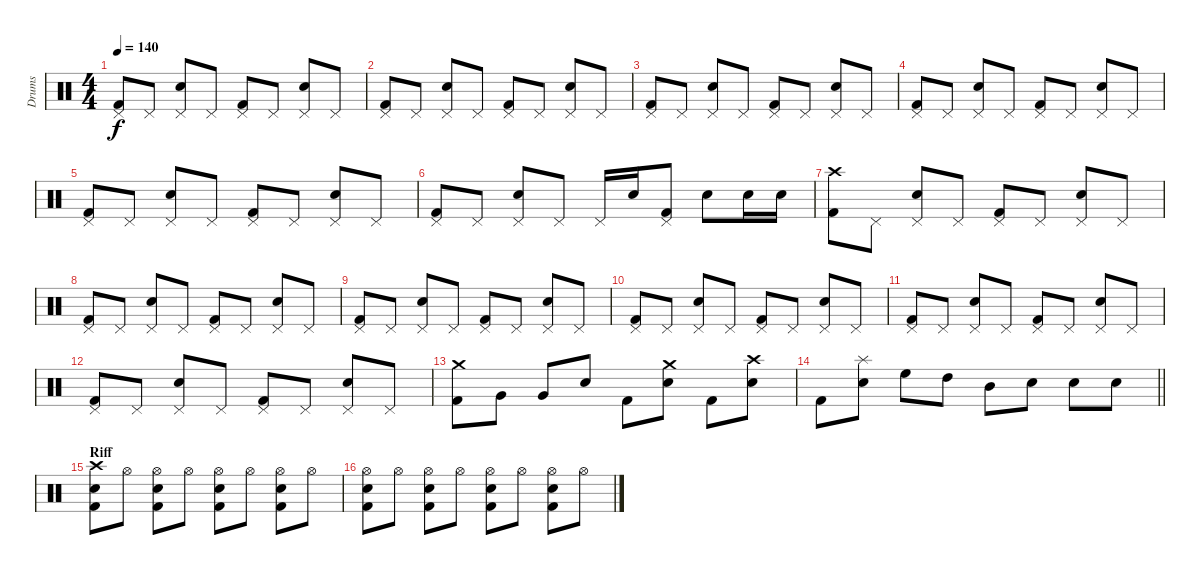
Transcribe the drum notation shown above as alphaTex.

\track ("Drums" "Drums") {instrument percussion}
\staff {score}
\articulation defaults
\ts (4 4)
\tempo 140
\clef neutral
\ks c
("Pedal Hi-Hat (hit)" "Kick (hit) 2").8{dy f} "Pedal Hi-Hat (hit)".8 ("Pedal Hi-Hat (hit)" "Snare (hit) 2").8 "Pedal Hi-Hat (hit)".8 ("Pedal Hi-Hat (hit)" "Kick (hit) 2").8 "Pedal Hi-Hat (hit)".8 ("Pedal Hi-Hat (hit)" "Snare (hit) 2").8 "Pedal Hi-Hat (hit)".8 |
("Pedal Hi-Hat (hit)" "Kick (hit) 2").8 "Pedal Hi-Hat (hit)".8 ("Pedal Hi-Hat (hit)" "Snare (hit) 2").8 "Pedal Hi-Hat (hit)".8 ("Pedal Hi-Hat (hit)" "Kick (hit) 2").8 "Pedal Hi-Hat (hit)".8 ("Pedal Hi-Hat (hit)" "Snare (hit) 2").8 "Pedal Hi-Hat (hit)".8 |
("Pedal Hi-Hat (hit)" "Kick (hit) 2").8 "Pedal Hi-Hat (hit)".8 ("Pedal Hi-Hat (hit)" "Snare (hit) 2").8 "Pedal Hi-Hat (hit)".8 ("Pedal Hi-Hat (hit)" "Kick (hit) 2").8 "Pedal Hi-Hat (hit)".8 ("Pedal Hi-Hat (hit)" "Snare (hit) 2").8 "Pedal Hi-Hat (hit)".8 |
("Pedal Hi-Hat (hit)" "Kick (hit) 2").8 "Pedal Hi-Hat (hit)".8 ("Pedal Hi-Hat (hit)" "Snare (hit) 2").8 "Pedal Hi-Hat (hit)".8 ("Pedal Hi-Hat (hit)" "Kick (hit) 2").8 "Pedal Hi-Hat (hit)".8 ("Pedal Hi-Hat (hit)" "Snare (hit) 2").8 "Pedal Hi-Hat (hit)".8 |
("Pedal Hi-Hat (hit)" "Kick (hit) 2").8 "Pedal Hi-Hat (hit)".8 ("Pedal Hi-Hat (hit)" "Snare (hit) 2").8 "Pedal Hi-Hat (hit)".8 ("Pedal Hi-Hat (hit)" "Kick (hit) 2").8 "Pedal Hi-Hat (hit)".8 ("Pedal Hi-Hat (hit)" "Snare (hit) 2").8 "Pedal Hi-Hat (hit)".8 |
("Pedal Hi-Hat (hit)" "Kick (hit) 2").8 "Pedal Hi-Hat (hit)".8 ("Pedal Hi-Hat (hit)" "Snare (hit) 2").8 "Pedal Hi-Hat (hit)".8 "Pedal Hi-Hat (hit)".16 "Snare (hit) 2".16 ("Pedal Hi-Hat (hit)" "Kick (hit) 2").8 "Snare (hit) 2".8 "Snare (hit) 2".16 "Snare (hit) 2".16 |
("Crash high (hit)" "Kick (hit) 2").8 "Pedal Hi-Hat (hit)".8 ("Pedal Hi-Hat (hit)" "Snare (hit) 2").8 "Pedal Hi-Hat (hit)".8 ("Pedal Hi-Hat (hit)" "Kick (hit) 2").8 "Pedal Hi-Hat (hit)".8 ("Pedal Hi-Hat (hit)" "Snare (hit) 2").8 "Pedal Hi-Hat (hit)".8 |
("Pedal Hi-Hat (hit)" "Kick (hit) 2").8 "Pedal Hi-Hat (hit)".8 ("Pedal Hi-Hat (hit)" "Snare (hit) 2").8 "Pedal Hi-Hat (hit)".8 ("Pedal Hi-Hat (hit)" "Kick (hit) 2").8 "Pedal Hi-Hat (hit)".8 ("Pedal Hi-Hat (hit)" "Snare (hit) 2").8 "Pedal Hi-Hat (hit)".8 |
("Pedal Hi-Hat (hit)" "Kick (hit) 2").8 "Pedal Hi-Hat (hit)".8 ("Pedal Hi-Hat (hit)" "Snare (hit) 2").8 "Pedal Hi-Hat (hit)".8 ("Pedal Hi-Hat (hit)" "Kick (hit) 2").8 "Pedal Hi-Hat (hit)".8 ("Pedal Hi-Hat (hit)" "Snare (hit) 2").8 "Pedal Hi-Hat (hit)".8 |
("Pedal Hi-Hat (hit)" "Kick (hit) 2").8 "Pedal Hi-Hat (hit)".8 ("Pedal Hi-Hat (hit)" "Snare (hit) 2").8 "Pedal Hi-Hat (hit)".8 ("Pedal Hi-Hat (hit)" "Kick (hit) 2").8 "Pedal Hi-Hat (hit)".8 ("Pedal Hi-Hat (hit)" "Snare (hit) 2").8 "Pedal Hi-Hat (hit)".8 |
("Pedal Hi-Hat (hit)" "Kick (hit) 2").8 "Pedal Hi-Hat (hit)".8 ("Pedal Hi-Hat (hit)" "Snare (hit) 2").8 "Pedal Hi-Hat (hit)".8 ("Pedal Hi-Hat (hit)" "Kick (hit) 2").8 "Pedal Hi-Hat (hit)".8 ("Pedal Hi-Hat (hit)" "Snare (hit) 2").8 "Pedal Hi-Hat (hit)".8 |
("Pedal Hi-Hat (hit)" "Kick (hit) 2").8 "Pedal Hi-Hat (hit)".8 ("Pedal Hi-Hat (hit)" "Snare (hit) 2").8 "Pedal Hi-Hat (hit)".8 ("Pedal Hi-Hat (hit)" "Kick (hit) 2").8 "Pedal Hi-Hat (hit)".8 ("Pedal Hi-Hat (hit)" "Snare (hit) 2").8 "Pedal Hi-Hat (hit)".8 |
("Crash medium (hit)" "Kick (hit) 2").8 "Very Low Tom (hit)".8 "Very Low Tom (hit)".8 "Snare (hit) 2".8 "Kick (hit) 2".8 ("Crash medium (hit)" "Snare (hit) 2").8 "Kick (hit) 2".8 ("Crash high (hit)" "Snare (hit) 2").8 |
\barLineRight lightlight "Kick (hit) 2".8
("Splash (hit)" "Snare (hit) 2").8 "High Floor Tom (hit)".8 "High Tom (hit)".8 "Mid Tom (hit)".8 "Snare (hit) 2".8 "Snare (hit) 2".8 "Snare (hit) 2".8 |
\section ("" "Riff")
("Crash high (hit)" "Snare (hit) 2" "Kick (hit) 2").8 "Hi-Hat (open)".8 ("Hi-Hat (open)" "Snare (hit) 2" "Kick (hit) 2").8 "Hi-Hat (open)".8 ("Hi-Hat (open)" "Snare (hit) 2" "Kick (hit) 2").8 "Hi-Hat (open)".8 ("Hi-Hat (open)" "Snare (hit) 2" "Kick (hit) 2").8 "Hi-Hat (open)".8 |
("Hi-Hat (open)" "Snare (hit) 2" "Kick (hit) 2").8 "Hi-Hat (open)".8 ("Hi-Hat (open)" "Snare (hit) 2" "Kick (hit) 2").8 "Hi-Hat (open)".8 ("Hi-Hat (open)" "Snare (hit) 2" "Kick (hit) 2").8 "Hi-Hat (open)".8 ("Hi-Hat (open)" "Snare (hit) 2" "Kick (hit) 2").8 "Hi-Hat (open)".8
